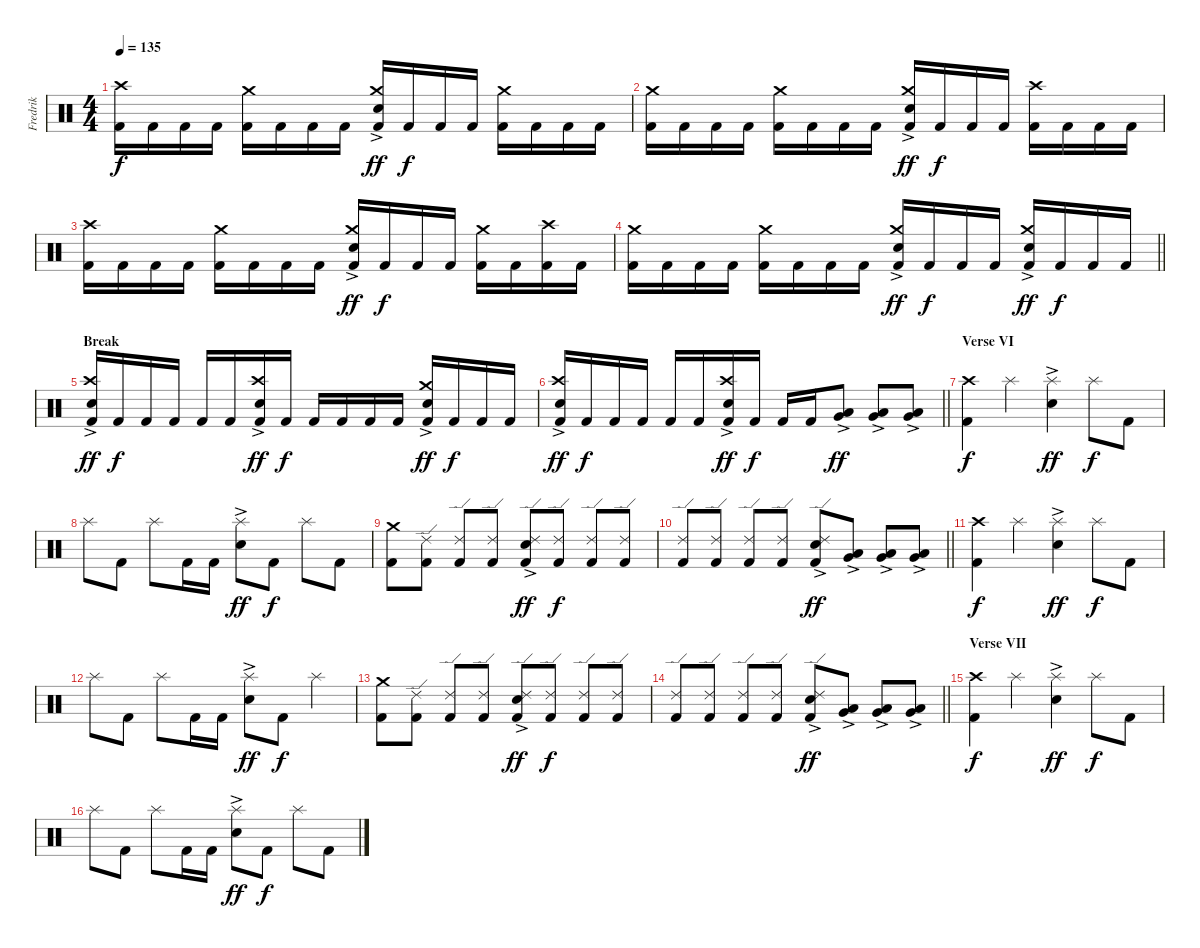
\track ("Fredrik" "Fredrik") {instrument percussion}
\staff {score}
\articulation defaults
\ts (4 4)
\section ("" "")
\tempo 135
\clef neutral
\ks c
("Kick (hit) 2" "Crash high (hit)").16{dy f} "Kick (hit) 2".16 "Kick (hit) 2".16 "Kick (hit) 2".16 ("Kick (hit) 2" "Crash medium (hit)").16 "Kick (hit) 2".16 "Kick (hit) 2".16 "Kick (hit) 2".16 ("Kick (hit) 2" "Snare (hit) 2"{ac} "Crash medium (hit)").16{dy ff} "Kick (hit) 2".16{dy f} "Kick (hit) 2".16 "Kick (hit) 2".16 ("Kick (hit) 2" "Crash medium (hit)").16 "Kick (hit) 2".16 "Kick (hit) 2".16 "Kick (hit) 2".16 |
("Kick (hit) 2" "Crash medium (hit)").16 "Kick (hit) 2".16 "Kick (hit) 2".16 "Kick (hit) 2".16 ("Kick (hit) 2" "Crash medium (hit)").16 "Kick (hit) 2".16 "Kick (hit) 2".16 "Kick (hit) 2".16 ("Kick (hit) 2" "Snare (hit) 2"{ac} "Crash medium (hit)").16{dy ff} "Kick (hit) 2".16{dy f} "Kick (hit) 2".16 "Kick (hit) 2".16 ("Kick (hit) 2" "Crash high (hit)").16 "Kick (hit) 2".16 "Kick (hit) 2".16 "Kick (hit) 2".16 |
("Kick (hit) 2" "Crash high (hit)").16 "Kick (hit) 2".16 "Kick (hit) 2".16 "Kick (hit) 2".16 ("Kick (hit) 2" "Crash medium (hit)").16 "Kick (hit) 2".16 "Kick (hit) 2".16 "Kick (hit) 2".16 ("Kick (hit) 2" "Snare (hit) 2"{ac} "Crash medium (hit)").16{dy ff} "Kick (hit) 2".16{dy f} "Kick (hit) 2".16 "Kick (hit) 2".16 ("Kick (hit) 2" "Crash medium (hit)").16 "Kick (hit) 2".16 ("Kick (hit) 2" "Crash high (hit)").16 "Kick (hit) 2".16 |
\barLineRight lightlight
("Kick (hit) 2" "Crash medium (hit)").16 "Kick (hit) 2".16 "Kick (hit) 2".16 "Kick (hit) 2".16 ("Kick (hit) 2" "Crash medium (hit)").16 "Kick (hit) 2".16 "Kick (hit) 2".16 "Kick (hit) 2".16 ("Kick (hit) 2" "Snare (hit) 2"{ac} "Crash medium (hit)").16{dy ff} "Kick (hit) 2".16{dy f} "Kick (hit) 2".16 "Kick (hit) 2".16 ("Kick (hit) 2" "Snare (hit) 2"{ac} "Crash medium (hit)").16{dy ff} "Kick (hit) 2".16{dy f} "Kick (hit) 2".16 "Kick (hit) 2".16 |
\section ("" "Break")
("Kick (hit) 2" "Snare (hit) 2"{ac} "Crash high (hit)").16{dy ff} "Kick (hit) 2".16{dy f} "Kick (hit) 2".16 "Kick (hit) 2".16 "Kick (hit) 2".16 "Kick (hit) 2".16 ("Kick (hit) 2" "Snare (hit) 2"{ac} "Crash high (hit)").16{dy ff} "Kick (hit) 2".16{dy f} "Kick (hit) 2".16 "Kick (hit) 2".16 "Kick (hit) 2".16 "Kick (hit) 2".16 ("Kick (hit) 2" "Snare (hit) 2"{ac} "Crash medium (hit)").16{dy ff} "Kick (hit) 2".16{dy f} "Kick (hit) 2".16 "Kick (hit) 2".16 |
\barLineRight lightlight
("Kick (hit) 2" "Snare (hit) 2"{ac} "Crash high (hit)").16{dy ff} "Kick (hit) 2".16{dy f} "Kick (hit) 2".16 "Kick (hit) 2".16 "Kick (hit) 2".16 "Kick (hit) 2".16 ("Kick (hit) 2" "Snare (hit) 2"{ac} "Crash high (hit)").16{dy ff} "Kick (hit) 2".16{dy f} "Kick (hit) 2".16 "Kick (hit) 2".16 ("Low Tom (hit)"{ac} "Very Low Tom (hit)"{ac}).8{dy ff} ("Very Low Tom (hit)"{ac} "Low Floor Tom (hit)"{ac}).8 ("Very Low Tom (hit)"{ac} "Low Floor Tom (hit)"{ac}).8 |
\section ("" "Verse VI")
("Kick (hit) 2" "Crash high (hit)").4{dy f} "Splash (hit)".4 ("Snare (hit) 2"{ac} "Splash (hit)").4{dy ff} "Splash (hit)".8{dy f} "Kick (hit) 2".8 |
"Splash (hit)".8 "Kick (hit) 2".8 "Splash (hit)".8 "Kick (hit) 2".16 "Kick (hit) 2".16 ("Snare (hit) 2"{ac} "Splash (hit)").8{dy ff} "Kick (hit) 2".8{dy f} "Splash (hit)".8 "Kick (hit) 2".8 |
("Kick (hit) 2" "Crash medium (hit)").8 ("Kick (hit) 2" "Ride (edge) 2").8 ("Kick (hit) 2" "Ride (edge) 2").8 ("Kick (hit) 2" "Ride (edge) 2").8 ("Kick (hit) 2" "Snare (hit) 2"{ac} "Ride (edge) 2").8{dy ff} ("Kick (hit) 2" "Ride (edge) 2").8{dy f} ("Kick (hit) 2" "Ride (edge) 2").8 ("Kick (hit) 2" "Ride (edge) 2").8 |
\barLineRight lightlight
("Kick (hit) 2" "Ride (edge) 2").8 ("Kick (hit) 2" "Ride (edge) 2").8 ("Kick (hit) 2" "Ride (edge) 2").8 ("Kick (hit) 2" "Ride (edge) 2").8 ("Kick (hit) 2" "Snare (hit) 2"{ac} "Ride (edge) 2").8{dy ff} ("Very Low Tom (hit)"{ac} "Low Floor Tom (hit)"{ac}).8 ("Very Low Tom (hit)"{ac} "Low Floor Tom (hit)"{ac}).8 ("Very Low Tom (hit)"{ac} "Low Floor Tom (hit)"{ac}).8 |
\section ("" "")
("Kick (hit) 2" "Crash high (hit)").4{dy f} "Splash (hit)".4 ("Snare (hit) 2"{ac} "Splash (hit)").4{dy ff} "Splash (hit)".8{dy f} "Kick (hit) 2".8 |
"Splash (hit)".8 "Kick (hit) 2".8 "Splash (hit)".8 "Kick (hit) 2".16 "Kick (hit) 2".16 ("Snare (hit) 2"{ac} "Splash (hit)").8{dy ff} "Kick (hit) 2".8{dy f} "Splash (hit)".4 |
("Kick (hit) 2" "Crash medium (hit)").8 ("Kick (hit) 2" "Ride (edge) 2").8 ("Kick (hit) 2" "Ride (edge) 2").8 ("Kick (hit) 2" "Ride (edge) 2").8 ("Kick (hit) 2" "Snare (hit) 2"{ac} "Ride (edge) 2").8{dy ff} ("Kick (hit) 2" "Ride (edge) 2").8{dy f} ("Kick (hit) 2" "Ride (edge) 2").8 ("Kick (hit) 2" "Ride (edge) 2").8 |
\barLineRight lightlight
("Kick (hit) 2" "Ride (edge) 2").8 ("Kick (hit) 2" "Ride (edge) 2").8 ("Kick (hit) 2" "Ride (edge) 2").8 ("Kick (hit) 2" "Ride (edge) 2").8 ("Kick (hit) 2" "Snare (hit) 2"{ac} "Ride (edge) 2").8{dy ff} ("Very Low Tom (hit)"{ac} "Low Floor Tom (hit)"{ac}).8 ("Very Low Tom (hit)"{ac} "Low Floor Tom (hit)"{ac}).8 ("Very Low Tom (hit)"{ac} "Low Floor Tom (hit)"{ac}).8 |
\section ("" "Verse VII")
("Kick (hit) 2" "Crash high (hit)").4{dy f} "Splash (hit)".4 ("Snare (hit) 2"{ac} "Splash (hit)").4{dy ff} "Splash (hit)".8{dy f} "Kick (hit) 2".8 |
"Splash (hit)".8 "Kick (hit) 2".8 "Splash (hit)".8 "Kick (hit) 2".16 "Kick (hit) 2".16 ("Snare (hit) 2"{ac} "Splash (hit)").8{dy ff} "Kick (hit) 2".8{dy f} "Splash (hit)".8 "Kick (hit) 2".8
